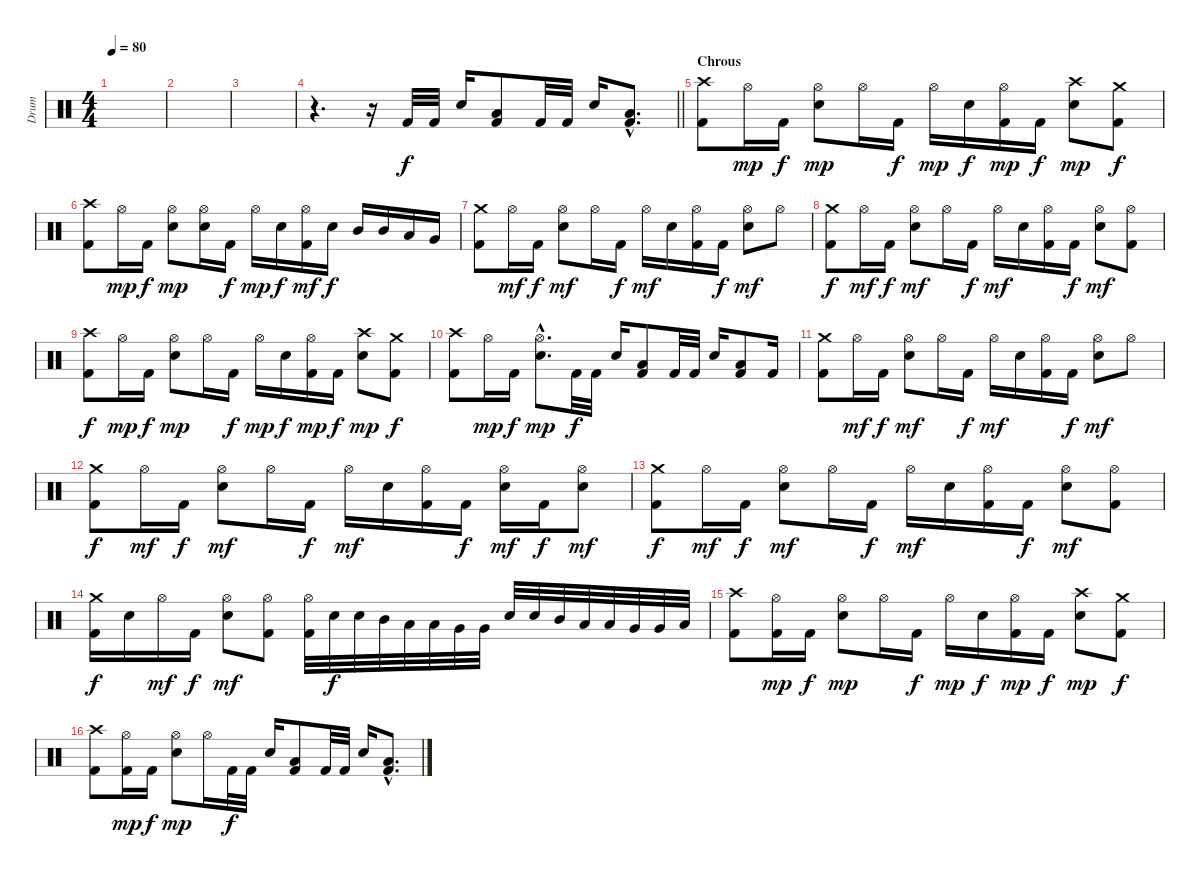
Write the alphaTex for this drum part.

\track ("Drum" "Drum") {instrument percussion}
\staff {score}
\articulation defaults
\ts (4 4)
\tempo 80
\clef neutral
\ks c
|
|
|
\barLineRight lightlight
r.4{d} r.16 "Kick (hit) 2".32 "Kick (hit) 2".32 "Snare (hit) 2".16 ("Low Floor Tom (hit)" "Kick (hit) 2").8 "Kick (hit) 2".32 "Kick (hit) 2".32 "Snare (hit) 2".16 ("Low Floor Tom (hit)"{hac} "Kick (hit) 2"{hac}).8{d} |
\section ("" "Chrous")
("Crash high (hit)" "Kick (hit) 2").8 "Hi-Hat (open)".16{dy mp} "Kick (hit) 2".16{dy f} ("Hi-Hat (open)" "Snare (hit) 2").8{dy mp} "Hi-Hat (open)".16 "Kick (hit) 2".16{dy f} "Hi-Hat (open)".16{dy mp} "Snare (hit) 2".16{dy f} ("Hi-Hat (open)" "Kick (hit) 2").16{dy mp} "Kick (hit) 2".16{dy f} ("Crash high (hit)" "Snare (hit) 2").8{dy mp} ("Crash medium (hit)" "Kick (hit) 2").8{dy f} |
("Crash high (hit)" "Kick (hit) 2").8 "Hi-Hat (open)".16{dy mp} "Kick (hit) 2".16{dy f} ("Hi-Hat (open)" "Snare (hit) 2").8{dy mp} ("Hi-Hat (open)" "Snare (hit) 2").16 "Kick (hit) 2".16{dy f} "Hi-Hat (open)".16{dy mp} "Snare (hit) 2".16{dy f} ("Hi-Hat (open)" "Kick (hit) 2").16{dy mf} "Snare (hit) 2".16{dy f} "Mid Tom (hit)".16 "Mid Tom (hit)".16 "Low Tom (hit)".16 "Very Low Tom (hit)".16 |
("Crash medium (hit)" "Kick (hit) 2").8 "Hi-Hat (open)".16{dy mf} "Kick (hit) 2".16{dy f} ("Hi-Hat (open)" "Snare (hit) 2").8{dy mf} "Hi-Hat (open)".16 "Kick (hit) 2".16{dy f} "Hi-Hat (open)".16{dy mf} "Snare (hit) 2".16 ("Hi-Hat (open)" "Kick (hit) 2").16 "Kick (hit) 2".16{dy f} ("Hi-Hat (open)" "Snare (hit) 2").8{dy mf} "Hi-Hat (open)".8 |
("Crash medium (hit)" "Kick (hit) 2").8{dy f} "Hi-Hat (open)".16{dy mf} "Kick (hit) 2".16{dy f} ("Hi-Hat (open)" "Snare (hit) 2").8{dy mf} "Hi-Hat (open)".16 "Kick (hit) 2".16{dy f} "Hi-Hat (open)".16{dy mf} "Snare (hit) 2".16 ("Hi-Hat (open)" "Kick (hit) 2").16 "Kick (hit) 2".16{dy f} ("Hi-Hat (open)" "Snare (hit) 2").8{dy mf} ("Hi-Hat (open)" "Kick (hit) 2").8 |
("Crash high (hit)" "Kick (hit) 2").8{dy f} "Hi-Hat (open)".16{dy mp} "Kick (hit) 2".16{dy f} ("Hi-Hat (open)" "Snare (hit) 2").8{dy mp} "Hi-Hat (open)".16 "Kick (hit) 2".16{dy f} "Hi-Hat (open)".16{dy mp} "Snare (hit) 2".16{dy f} ("Hi-Hat (open)" "Kick (hit) 2").16{dy mp} "Kick (hit) 2".16{dy f} ("Crash high (hit)" "Snare (hit) 2").8{dy mp} ("Crash medium (hit)" "Kick (hit) 2").8{dy f} |
("Crash high (hit)" "Kick (hit) 2").8 "Hi-Hat (open)".16{dy mp} "Kick (hit) 2".16{dy f} ("Hi-Hat (open)"{hac} "Snare (hit) 2"{hac}).8{d dy mp} "Kick (hit) 2".32{dy f} "Kick (hit) 2".32 "Snare (hit) 2".16 ("Low Floor Tom (hit)" "Kick (hit) 2").8 "Kick (hit) 2".32 "Kick (hit) 2".32 "Snare (hit) 2".16 ("Low Floor Tom (hit)" "Kick (hit) 2").8 "Kick (hit) 2".16 |
("Crash medium (hit)" "Kick (hit) 2").8 "Hi-Hat (open)".16{dy mf} "Kick (hit) 2".16{dy f} ("Hi-Hat (open)" "Snare (hit) 2").8{dy mf} "Hi-Hat (open)".16 "Kick (hit) 2".16{dy f} "Hi-Hat (open)".16{dy mf} "Snare (hit) 2".16 ("Hi-Hat (open)" "Kick (hit) 2").16 "Kick (hit) 2".16{dy f} ("Hi-Hat (open)" "Snare (hit) 2").8{dy mf} "Hi-Hat (open)".8 |
("Crash medium (hit)" "Kick (hit) 2").8{dy f} "Hi-Hat (open)".16{dy mf} "Kick (hit) 2".16{dy f} ("Hi-Hat (open)" "Snare (hit) 2").8{dy mf} "Hi-Hat (open)".16 "Kick (hit) 2".16{dy f} "Hi-Hat (open)".16{dy mf} "Snare (hit) 2".16 ("Hi-Hat (open)" "Kick (hit) 2").16 "Kick (hit) 2".16{dy f} ("Hi-Hat (open)" "Snare (hit) 2").16{dy mf} "Kick (hit) 2".16{dy f} ("Hi-Hat (open)" "Snare (hit) 2").8{dy mf} |
("Crash medium (hit)" "Kick (hit) 2").8{dy f} "Hi-Hat (open)".16{dy mf} "Kick (hit) 2".16{dy f} ("Hi-Hat (open)" "Snare (hit) 2").8{dy mf} "Hi-Hat (open)".16 "Kick (hit) 2".16{dy f} "Hi-Hat (open)".16{dy mf} "Snare (hit) 2".16 ("Hi-Hat (open)" "Kick (hit) 2").16 "Kick (hit) 2".16{dy f} ("Hi-Hat (open)" "Snare (hit) 2").8{dy mf} ("Hi-Hat (open)" "Kick (hit) 2").8 |
("Crash medium (hit)" "Kick (hit) 2").16{dy f} "Snare (hit) 2".16 "Hi-Hat (open)".16{dy mf} "Kick (hit) 2".16{dy f} ("Hi-Hat (open)" "Snare (hit) 2").8{dy mf} ("Hi-Hat (open)" "Kick (hit) 2").8 ("Hi-Hat (open)" "Kick (hit) 2").32 "Snare (hit) 2".32{dy f} "Snare (hit) 2".32 "Mid Tom (hit)".32 "Low Tom (hit)".32 "Low Tom (hit)".32 "Very Low Tom (hit)".32 "Very Low Tom (hit)".32 "Snare (hit) 2".32 "Snare (hit) 2".32 "Mid Tom (hit)".32 "Low Tom (hit)".32 "Low Tom (hit)".32 "Very Low Tom (hit)".32 "Very Low Tom (hit)".32 "Low Floor Tom (hit)".32 |
("Crash high (hit)" "Kick (hit) 2").8 ("Hi-Hat (open)" "Kick (hit) 2").16{dy mp} "Kick (hit) 2".16{dy f} ("Hi-Hat (open)" "Snare (hit) 2").8{dy mp} "Hi-Hat (open)".16 "Kick (hit) 2".16{dy f} "Hi-Hat (open)".16{dy mp} "Snare (hit) 2".16{dy f} ("Hi-Hat (open)" "Kick (hit) 2").16{dy mp} "Kick (hit) 2".16{dy f} ("Crash high (hit)" "Snare (hit) 2").8{dy mp} ("Crash medium (hit)" "Kick (hit) 2").8{dy f} |
("Crash high (hit)" "Kick (hit) 2").8 ("Hi-Hat (open)" "Kick (hit) 2").16{dy mp} "Kick (hit) 2".16{dy f} ("Hi-Hat (open)" "Snare (hit) 2").8{dy mp} "Hi-Hat (open)".16 "Kick (hit) 2".32{dy f} "Kick (hit) 2".32 "Snare (hit) 2".16 ("Low Floor Tom (hit)" "Kick (hit) 2").8 "Kick (hit) 2".32 "Kick (hit) 2".32 "Snare (hit) 2".16 ("Low Floor Tom (hit)"{hac} "Kick (hit) 2"{hac}).8{d}
